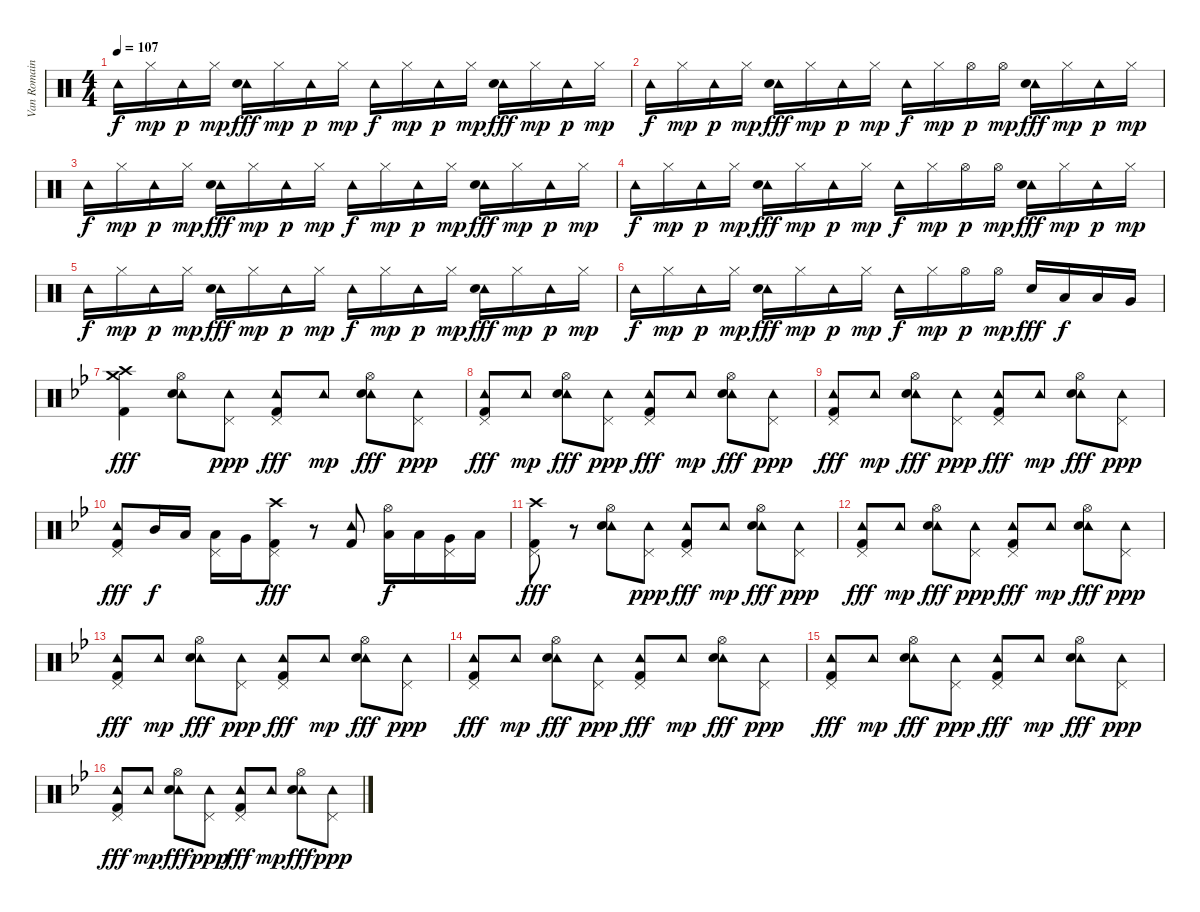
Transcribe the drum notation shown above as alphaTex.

\track ("Van Romaine" "Van Romain") {instrument percussion}
\staff {score}
\articulation defaults
\ts (4 4)
\tempo 107
\clef neutral
\ks c "Tambourine (hit)".16{dy f} "Hi-Hat (closed)".16{dy mp} "Tambourine (hit)".16{dy p} "Hi-Hat (closed)".16{dy mp}
("Tambourine (hit)" "Electric Snare (hit)").16{dy fff} "Hi-Hat (closed)".16{dy mp} "Tambourine (hit)".16{dy p} "Hi-Hat (closed)".16{dy mp} "Tambourine (hit)".16{dy f} "Hi-Hat (closed)".16{dy mp} "Tambourine (hit)".16{dy p} "Hi-Hat (closed)".16{dy mp} ("Tambourine (hit)" "Electric Snare (hit)").16{dy fff} "Hi-Hat (closed)".16{dy mp} "Tambourine (hit)".16{dy p} "Hi-Hat (closed)".16{dy mp} |
"Tambourine (hit)".16{dy f} "Hi-Hat (closed)".16{dy mp} "Tambourine (hit)".16{dy p} "Hi-Hat (closed)".16{dy mp} ("Tambourine (hit)" "Electric Snare (hit)").16{dy fff} "Hi-Hat (closed)".16{dy mp} "Tambourine (hit)".16{dy p} "Hi-Hat (closed)".16{dy mp} "Tambourine (hit)".16{dy f} "Hi-Hat (closed)".16{dy mp} "Hi-Hat (open)".16{dy p} "Hi-Hat (open)".16{dy mp} ("Tambourine (hit)" "Electric Snare (hit)").16{dy fff} "Hi-Hat (closed)".16{dy mp} "Tambourine (hit)".16{dy p} "Hi-Hat (closed)".16{dy mp} |
"Tambourine (hit)".16{dy f} "Hi-Hat (closed)".16{dy mp} "Tambourine (hit)".16{dy p} "Hi-Hat (closed)".16{dy mp} ("Tambourine (hit)" "Electric Snare (hit)").16{dy fff} "Hi-Hat (closed)".16{dy mp} "Tambourine (hit)".16{dy p} "Hi-Hat (closed)".16{dy mp} "Tambourine (hit)".16{dy f} "Hi-Hat (closed)".16{dy mp} "Tambourine (hit)".16{dy p} "Hi-Hat (closed)".16{dy mp} ("Tambourine (hit)" "Electric Snare (hit)").16{dy fff} "Hi-Hat (closed)".16{dy mp} "Tambourine (hit)".16{dy p} "Hi-Hat (closed)".16{dy mp} |
"Tambourine (hit)".16{dy f} "Hi-Hat (closed)".16{dy mp} "Tambourine (hit)".16{dy p} "Hi-Hat (closed)".16{dy mp} ("Tambourine (hit)" "Electric Snare (hit)").16{dy fff} "Hi-Hat (closed)".16{dy mp} "Tambourine (hit)".16{dy p} "Hi-Hat (closed)".16{dy mp} "Tambourine (hit)".16{dy f} "Hi-Hat (closed)".16{dy mp} "Hi-Hat (open)".16{dy p} "Hi-Hat (open)".16{dy mp} ("Tambourine (hit)" "Electric Snare (hit)").16{dy fff} "Hi-Hat (closed)".16{dy mp} "Tambourine (hit)".16{dy p} "Hi-Hat (closed)".16{dy mp} |
"Tambourine (hit)".16{dy f} "Hi-Hat (closed)".16{dy mp} "Tambourine (hit)".16{dy p} "Hi-Hat (closed)".16{dy mp} ("Tambourine (hit)" "Electric Snare (hit)").16{dy fff} "Hi-Hat (closed)".16{dy mp} "Tambourine (hit)".16{dy p} "Hi-Hat (closed)".16{dy mp} "Tambourine (hit)".16{dy f} "Hi-Hat (closed)".16{dy mp} "Tambourine (hit)".16{dy p} "Hi-Hat (closed)".16{dy mp} ("Tambourine (hit)" "Electric Snare (hit)").16{dy fff} "Hi-Hat (closed)".16{dy mp} "Tambourine (hit)".16{dy p} "Hi-Hat (closed)".16{dy mp} |
"Tambourine (hit)".16{dy f} "Hi-Hat (closed)".16{dy mp} "Tambourine (hit)".16{dy p} "Hi-Hat (closed)".16{dy mp} ("Tambourine (hit)" "Electric Snare (hit)").16{dy fff} "Hi-Hat (closed)".16{dy mp} "Tambourine (hit)".16{dy p} "Hi-Hat (closed)".16{dy mp} "Tambourine (hit)".16{dy f} "Hi-Hat (closed)".16{dy mp} "Hi-Hat (open)".16{dy p} "Hi-Hat (open)".16{dy mp} "Electric Snare (hit)".16{dy fff} "Low Tom (hit)".16{dy f} "Low Tom (hit)".16 "Very Low Tom (hit)".16 |
\ks bb
("Crash high (hit)" "Crash medium (hit)" "Kick (hit) 2").4{dy fff} ("Tambourine (hit)" "Hi-Hat (open)" "Electric Snare (hit)").8 ("Tambourine (hit)" "Pedal Hi-Hat (hit)").8{dy ppp} ("Tambourine (hit)" "Pedal Hi-Hat (hit)" "Kick (hit) 2").8{dy fff} "Tambourine (hit)".8{dy mp} ("Tambourine (hit)" "Hi-Hat (open)" "Electric Snare (hit)").8{dy fff} ("Tambourine (hit)" "Pedal Hi-Hat (hit)").8{dy ppp} |
("Tambourine (hit)" "Pedal Hi-Hat (hit)" "Kick (hit) 2").8{dy fff} "Tambourine (hit)".8{dy mp} ("Tambourine (hit)" "Hi-Hat (open)" "Electric Snare (hit)").8{dy fff} ("Tambourine (hit)" "Pedal Hi-Hat (hit)").8{dy ppp} ("Tambourine (hit)" "Pedal Hi-Hat (hit)" "Kick (hit) 2").8{dy fff} "Tambourine (hit)".8{dy mp} ("Tambourine (hit)" "Hi-Hat (open)" "Electric Snare (hit)").8{dy fff} ("Tambourine (hit)" "Pedal Hi-Hat (hit)").8{dy ppp} |
("Tambourine (hit)" "Pedal Hi-Hat (hit)" "Kick (hit) 2").8{dy fff} "Tambourine (hit)".8{dy mp} ("Tambourine (hit)" "Hi-Hat (open)" "Electric Snare (hit)").8{dy fff} ("Tambourine (hit)" "Pedal Hi-Hat (hit)").8{dy ppp} ("Tambourine (hit)" "Pedal Hi-Hat (hit)" "Kick (hit) 2").8{dy fff} "Tambourine (hit)".8{dy mp} ("Tambourine (hit)" "Hi-Hat (open)" "Electric Snare (hit)").8{dy fff} ("Tambourine (hit)" "Pedal Hi-Hat (hit)").8{dy ppp} |
("Tambourine (hit)" "Pedal Hi-Hat (hit)" "Kick (hit) 2").8{dy fff} "Mid Tom (hit)".16{dy f} "Low Tom (hit)".16 ("Pedal Hi-Hat (hit)" "Low Tom (hit)").16 "Very Low Tom (hit)".16 ("Crash high (hit)" "Pedal Hi-Hat (hit)" "Kick (hit) 2").8{dy fff} r.8 ("Tambourine (hit)" "Kick (hit) 2").8 ("Hi-Hat (open)" "Low Tom (hit)").16{dy f} "Low Tom (hit)".16 ("Pedal Hi-Hat (hit)" "Very Low Tom (hit)").16 "Low Floor Tom (hit)".16 |
("Crash high (hit)" "Pedal Hi-Hat (hit)" "Kick (hit) 2").8{dy fff} r.8 ("Tambourine (hit)" "Hi-Hat (open)" "Electric Snare (hit)").8 ("Tambourine (hit)" "Pedal Hi-Hat (hit)").8{dy ppp} ("Tambourine (hit)" "Pedal Hi-Hat (hit)" "Kick (hit) 2").8{dy fff} "Tambourine (hit)".8{dy mp} ("Tambourine (hit)" "Hi-Hat (open)" "Electric Snare (hit)").8{dy fff} ("Tambourine (hit)" "Pedal Hi-Hat (hit)").8{dy ppp} |
("Tambourine (hit)" "Pedal Hi-Hat (hit)" "Kick (hit) 2").8{dy fff} "Tambourine (hit)".8{dy mp} ("Tambourine (hit)" "Hi-Hat (open)" "Electric Snare (hit)").8{dy fff} ("Tambourine (hit)" "Pedal Hi-Hat (hit)").8{dy ppp} ("Tambourine (hit)" "Pedal Hi-Hat (hit)" "Kick (hit) 2").8{dy fff} "Tambourine (hit)".8{dy mp} ("Tambourine (hit)" "Hi-Hat (open)" "Electric Snare (hit)").8{dy fff} ("Tambourine (hit)" "Pedal Hi-Hat (hit)").8{dy ppp} |
("Tambourine (hit)" "Pedal Hi-Hat (hit)" "Kick (hit) 2").8{dy fff} "Tambourine (hit)".8{dy mp} ("Tambourine (hit)" "Hi-Hat (open)" "Electric Snare (hit)").8{dy fff} ("Tambourine (hit)" "Pedal Hi-Hat (hit)").8{dy ppp} ("Tambourine (hit)" "Pedal Hi-Hat (hit)" "Kick (hit) 2").8{dy fff} "Tambourine (hit)".8{dy mp} ("Tambourine (hit)" "Hi-Hat (open)" "Electric Snare (hit)").8{dy fff} ("Tambourine (hit)" "Pedal Hi-Hat (hit)").8{dy ppp} |
("Tambourine (hit)" "Pedal Hi-Hat (hit)" "Kick (hit) 2").8{dy fff} "Tambourine (hit)".8{dy mp} ("Tambourine (hit)" "Hi-Hat (open)" "Electric Snare (hit)").8{dy fff} ("Tambourine (hit)" "Pedal Hi-Hat (hit)").8{dy ppp} ("Tambourine (hit)" "Pedal Hi-Hat (hit)" "Kick (hit) 2").8{dy fff} "Tambourine (hit)".8{dy mp} ("Tambourine (hit)" "Hi-Hat (open)" "Electric Snare (hit)").8{dy fff} ("Tambourine (hit)" "Pedal Hi-Hat (hit)").8{dy ppp} |
("Tambourine (hit)" "Pedal Hi-Hat (hit)" "Kick (hit) 2").8{dy fff} "Tambourine (hit)".8{dy mp} ("Tambourine (hit)" "Hi-Hat (open)" "Electric Snare (hit)").8{dy fff} ("Tambourine (hit)" "Pedal Hi-Hat (hit)").8{dy ppp} ("Tambourine (hit)" "Pedal Hi-Hat (hit)" "Kick (hit) 2").8{dy fff} "Tambourine (hit)".8{dy mp} ("Tambourine (hit)" "Hi-Hat (open)" "Electric Snare (hit)").8{dy fff} ("Tambourine (hit)" "Pedal Hi-Hat (hit)").8{dy ppp} |
("Tambourine (hit)" "Pedal Hi-Hat (hit)" "Kick (hit) 2").8{dy fff} "Tambourine (hit)".8{dy mp} ("Tambourine (hit)" "Hi-Hat (open)" "Electric Snare (hit)").8{dy fff} ("Tambourine (hit)" "Pedal Hi-Hat (hit)").8{dy ppp} ("Tambourine (hit)" "Pedal Hi-Hat (hit)" "Kick (hit) 2").8{dy fff} "Tambourine (hit)".8{dy mp} ("Tambourine (hit)" "Hi-Hat (open)" "Electric Snare (hit)").8{dy fff} ("Tambourine (hit)" "Pedal Hi-Hat (hit)").8{dy ppp}
